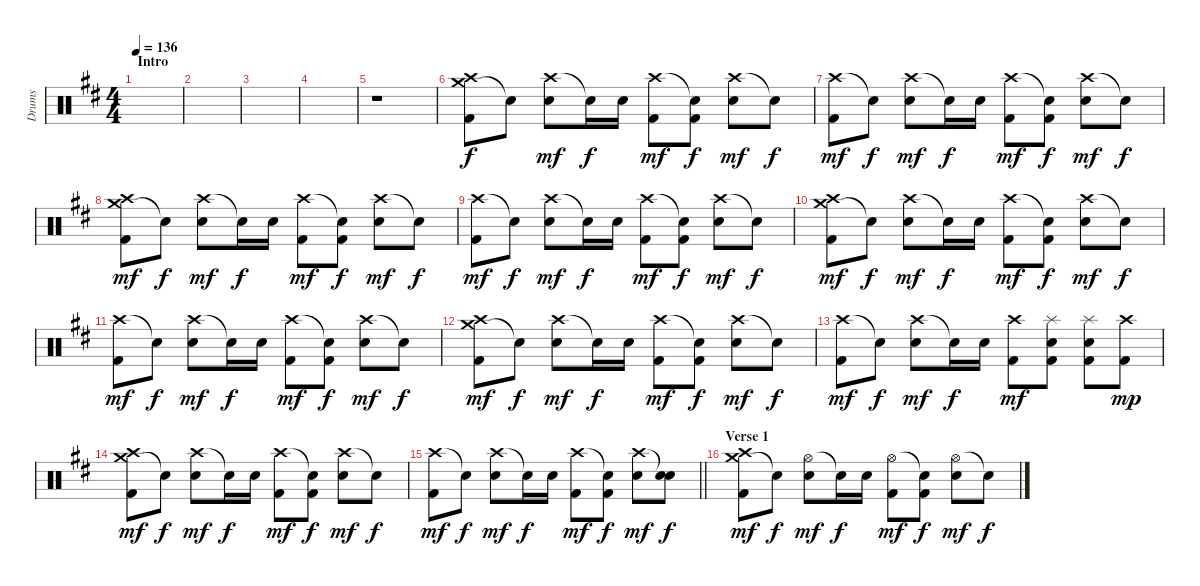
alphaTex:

\track ("Drums" "Drums") {instrument percussion}
\staff {score}
\articulation defaults
\ts (4 4)
\section ("" "Intro")
\tempo 136
\clef neutral
\ks d
|
|
|
|
r.1 |
("Crash medium (hit)" "Crash high (hit)" "Kick (hit) 2").8 "Snare (hit)"{t}.8{dy f} ("Crash high (hit)" "Electric Snare (hit)").8{dy mf} "Snare (hit)"{t}.16{dy f} "Electric Snare (hit)".16 ("Crash high (hit)" "Kick (hit) 2").8{dy mf} ("Snare (hit)"{t} "Kick (hit) 2").8{dy f} ("Crash high (hit)" "Electric Snare (hit)").8{dy mf} "Snare (hit)"{t}.8{dy f} |
("Crash high (hit)" "Kick (hit) 2").8{dy mf} "Snare (hit)"{t}.8{dy f} ("Crash high (hit)" "Electric Snare (hit)").8{dy mf} "Snare (hit)"{t}.16{dy f} "Electric Snare (hit)".16 ("Crash high (hit)" "Kick (hit) 2").8{dy mf} ("Snare (hit)"{t} "Kick (hit) 2").8{dy f} ("Crash high (hit)" "Electric Snare (hit)").8{dy mf} "Snare (hit)"{t}.8{dy f} |
("Crash medium (hit)" "Crash high (hit)" "Kick (hit) 2").8{dy mf} "Snare (hit)"{t}.8{dy f} ("Crash high (hit)" "Electric Snare (hit)").8{dy mf} "Snare (hit)"{t}.16{dy f} "Electric Snare (hit)".16 ("Crash high (hit)" "Kick (hit) 2").8{dy mf} ("Snare (hit)"{t} "Kick (hit) 2").8{dy f} ("Crash high (hit)" "Electric Snare (hit)").8{dy mf} "Snare (hit)"{t}.8{dy f} |
("Crash high (hit)" "Kick (hit) 2").8{dy mf} "Snare (hit)"{t}.8{dy f} ("Crash high (hit)" "Electric Snare (hit)").8{dy mf} "Snare (hit)"{t}.16{dy f} "Electric Snare (hit)".16 ("Crash high (hit)" "Kick (hit) 2").8{dy mf} ("Snare (hit)"{t} "Kick (hit) 2").8{dy f} ("Crash high (hit)" "Electric Snare (hit)").8{dy mf} "Snare (hit)"{t}.8{dy f} |
("Crash medium (hit)" "Crash high (hit)" "Kick (hit) 2").8{dy mf} "Snare (hit)"{t}.8{dy f} ("Crash high (hit)" "Electric Snare (hit)").8{dy mf} "Snare (hit)"{t}.16{dy f} "Electric Snare (hit)".16 ("Crash high (hit)" "Kick (hit) 2").8{dy mf} ("Snare (hit)"{t} "Kick (hit) 2").8{dy f} ("Crash high (hit)" "Electric Snare (hit)").8{dy mf} "Snare (hit)"{t}.8{dy f} |
("Crash high (hit)" "Kick (hit) 2").8{dy mf} "Snare (hit)"{t}.8{dy f} ("Crash high (hit)" "Electric Snare (hit)").8{dy mf} "Snare (hit)"{t}.16{dy f} "Electric Snare (hit)".16 ("Crash high (hit)" "Kick (hit) 2").8{dy mf} ("Snare (hit)"{t} "Kick (hit) 2").8{dy f} ("Crash high (hit)" "Electric Snare (hit)").8{dy mf} "Snare (hit)"{t}.8{dy f} |
("Crash medium (hit)" "Crash high (hit)" "Kick (hit) 2").8{dy mf} "Snare (hit)"{t}.8{dy f} ("Crash high (hit)" "Electric Snare (hit)").8{dy mf} "Snare (hit)"{t}.16{dy f} "Electric Snare (hit)".16 ("Crash high (hit)" "Kick (hit) 2").8{dy mf} ("Snare (hit)"{t} "Kick (hit) 2").8{dy f} ("Crash high (hit)" "Electric Snare (hit)").8{dy mf} "Snare (hit)"{t}.8{dy f} |
("Crash high (hit)" "Kick (hit) 2").8{dy mf} "Snare (hit)"{t}.8{dy f} ("Crash high (hit)" "Electric Snare (hit)").8{dy mf} "Snare (hit)"{t}.16{dy f} "Electric Snare (hit)".16 ("Crash high (hit)" "Kick (hit) 2").8{dy mf} ("Splash (hit)" "Electric Snare (hit)" "Kick (hit) 2").8 ("Splash (hit)" "Electric Snare (hit)" "Kick (hit) 2").8 ("Crash high (hit)" "Kick (hit) 2").8{dy mp} |
("Crash medium (hit)" "Crash high (hit)" "Kick (hit) 2").8{dy mf} "Snare (hit)"{t}.8{dy f} ("Crash high (hit)" "Electric Snare (hit)").8{dy mf} "Snare (hit)"{t}.16{dy f} "Electric Snare (hit)".16 ("Crash high (hit)" "Kick (hit) 2").8{dy mf} ("Snare (hit)"{t} "Kick (hit) 2").8{dy f} ("Crash high (hit)" "Electric Snare (hit)").8{dy mf} "Snare (hit)"{t}.8{dy f} |
\barLineRight lightlight
("Crash high (hit)" "Kick (hit) 2").8{dy mf} "Snare (hit)"{t}.8{dy f} ("Crash high (hit)" "Electric Snare (hit)").8{dy mf} "Snare (hit)"{t}.16{dy f} "Electric Snare (hit)".16 ("Crash high (hit)" "Kick (hit) 2").8{dy mf} ("Snare (hit)"{t} "Kick (hit) 2").8{dy f} ("Crash high (hit)" "Electric Snare (hit)").8{dy mf} ("Snare (hit)"{t} "Electric Snare (hit)").8{dy f} |
\section ("" "Verse 1")
("Crash medium (hit)" "Crash high (hit)" "Kick (hit) 2").8{dy mf} "Snare (hit)"{t}.8{dy f} ("Hi-Hat (open)" "Electric Snare (hit)").8{dy mf} "Snare (hit)"{t}.16{dy f} "Electric Snare (hit)".16 ("Hi-Hat (open)" "Kick (hit) 2").8{dy mf} ("Snare (hit)"{t} "Kick (hit) 2").8{dy f} ("Hi-Hat (open)" "Electric Snare (hit)").8{dy mf} "Snare (hit)"{t}.8{dy f}
